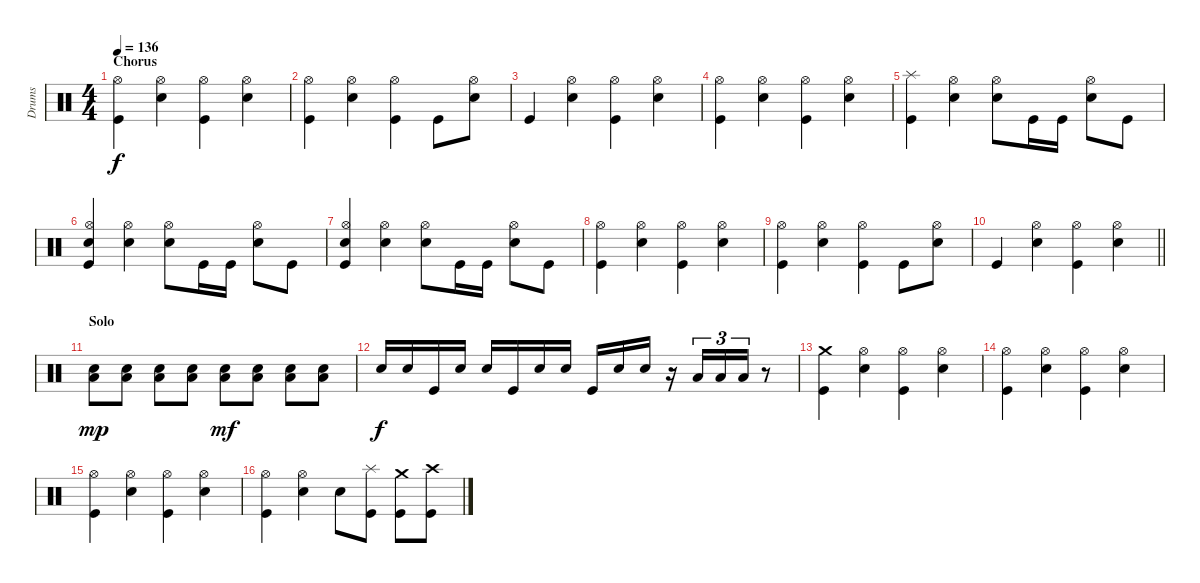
\track ("Drums" "Drums") {instrument percussion}
\staff {score}
\articulation defaults
\ts (4 4)
\section ("" "Chorus")
\tempo 136
\clef neutral
\ks c
("Kick (hit)" "Hi-Hat (open)").4{dy f} ("Electric Snare (hit)" "Hi-Hat (open)").4 ("Kick (hit)" "Hi-Hat (open)").4 ("Electric Snare (hit)" "Hi-Hat (open)").4 |
("Kick (hit)" "Hi-Hat (open)").4 ("Electric Snare (hit)" "Hi-Hat (open)").4 ("Kick (hit)" "Hi-Hat (open)").4 "Kick (hit)".8 ("Electric Snare (hit)" "Hi-Hat (open)").8 |
"Kick (hit)".4 ("Electric Snare (hit)" "Hi-Hat (open)").4 ("Kick (hit)" "Hi-Hat (open)").4 ("Electric Snare (hit)" "Hi-Hat (open)").4 |
("Kick (hit)" "Hi-Hat (open)").4 ("Electric Snare (hit)" "Hi-Hat (open)").4 ("Kick (hit)" "Hi-Hat (open)").4 ("Electric Snare (hit)" "Hi-Hat (open)").4 |
("Kick (hit)" "Splash (hit)").4 ("Electric Snare (hit)" "Hi-Hat (open)").4 ("Electric Snare (hit)" "Hi-Hat (open)").8 "Kick (hit)".16 "Kick (hit)".16 ("Electric Snare (hit)" "Hi-Hat (open)").8 "Kick (hit)".8 |
("Kick (hit)" "Electric Snare (hit)" "Hi-Hat (open)").4 ("Electric Snare (hit)" "Hi-Hat (open)").4 ("Electric Snare (hit)" "Hi-Hat (open)").8 "Kick (hit)".16 "Kick (hit)".16 ("Electric Snare (hit)" "Hi-Hat (open)").8 "Kick (hit)".8 |
("Kick (hit)" "Electric Snare (hit)" "Hi-Hat (open)").4 ("Electric Snare (hit)" "Hi-Hat (open)").4 ("Electric Snare (hit)" "Hi-Hat (open)").8 "Kick (hit)".16 "Kick (hit)".16 ("Electric Snare (hit)" "Hi-Hat (open)").8 "Kick (hit)".8 |
("Kick (hit)" "Hi-Hat (open)").4 ("Electric Snare (hit)" "Hi-Hat (open)").4 ("Kick (hit)" "Hi-Hat (open)").4 ("Electric Snare (hit)" "Hi-Hat (open)").4 |
("Kick (hit)" "Hi-Hat (open)").4 ("Electric Snare (hit)" "Hi-Hat (open)").4 ("Kick (hit)" "Hi-Hat (open)").4 "Kick (hit)".8 ("Electric Snare (hit)" "Hi-Hat (open)").8 |
\barLineRight lightlight "Kick (hit)".4
("Electric Snare (hit)" "Hi-Hat (open)").4 ("Kick (hit)" "Hi-Hat (open)").4 ("Electric Snare (hit)" "Hi-Hat (open)").4 |
\section ("" "Solo")
("Electric Snare (hit)" "Low Floor Tom (hit)").8{dy mp} ("Electric Snare (hit)" "Low Floor Tom (hit)").8 ("Electric Snare (hit)" "Low Floor Tom (hit)").8 ("Electric Snare (hit)" "Low Floor Tom (hit)").8 ("Electric Snare (hit)" "Low Floor Tom (hit)").8{dy mf} ("Electric Snare (hit)" "Low Floor Tom (hit)").8 ("Electric Snare (hit)" "Low Floor Tom (hit)").8 ("Electric Snare (hit)" "Low Floor Tom (hit)").8 |
"Electric Snare (hit)".16{dy f} "Electric Snare (hit)".16 "Kick (hit)".16 "Electric Snare (hit)".16 "Electric Snare (hit)".16 "Kick (hit)".16 "Electric Snare (hit)".16 "Electric Snare (hit)".16 "Kick (hit)".16 "Electric Snare (hit)".16 "Electric Snare (hit)".16 r.16 "Low Floor Tom (hit)".16{tu (3 2)} "Low Floor Tom (hit)".16{tu (3 2)} "Low Floor Tom (hit)".16{tu (3 2)} r.8 |
("Kick (hit)" "Crash medium (hit)").4 ("Electric Snare (hit)" "Hi-Hat (open)").4 ("Kick (hit)" "Hi-Hat (open)").4 ("Electric Snare (hit)" "Hi-Hat (open)").4 |
("Kick (hit)" "Hi-Hat (open)").4 ("Electric Snare (hit)" "Hi-Hat (open)").4 ("Kick (hit)" "Hi-Hat (open)").4 ("Electric Snare (hit)" "Hi-Hat (open)").4 |
("Kick (hit)" "Hi-Hat (open)").4 ("Electric Snare (hit)" "Hi-Hat (open)").4 ("Kick (hit)" "Hi-Hat (open)").4 ("Electric Snare (hit)" "Hi-Hat (open)").4 |
("Kick (hit)" "Hi-Hat (open)").4 ("Electric Snare (hit)" "Hi-Hat (open)").4 "Electric Snare (hit)".8 ("Kick (hit)" "Splash (hit)").8 ("Kick (hit)" "Crash medium (hit)").8 ("Kick (hit)" "Crash high (hit)").8
